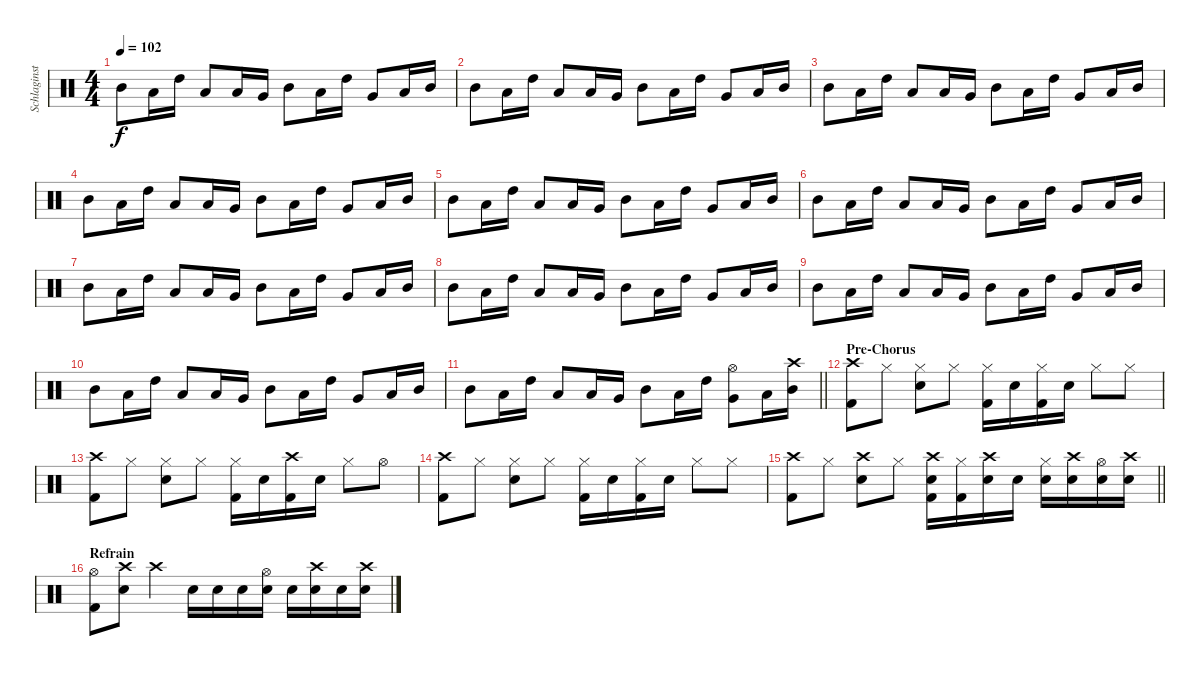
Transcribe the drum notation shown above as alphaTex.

\track ("Schlaginstrumente - Auswahl" "Schlaginst") {instrument percussion}
\staff {score}
\articulation defaults
\ts (4 4)
\tempo 102
\clef neutral
\ks c "Mid Tom (hit)".8{dy f} "Low Tom (hit)".16 "High Tom (hit)".16 "Low Floor Tom (hit)".8 "Low Tom (hit)".16 "Very Low Tom (hit)".16 "Mid Tom (hit)".8 "Low Tom (hit)".16 "High Tom (hit)".16 "Very Low Tom (hit)".8 "Low Tom (hit)".16 "Mid Tom (hit)".16
|
"Mid Tom (hit)".8 "Low Tom (hit)".16 "High Tom (hit)".16 "Low Floor Tom (hit)".8 "Low Tom (hit)".16 "Very Low Tom (hit)".16 "Mid Tom (hit)".8 "Low Tom (hit)".16 "High Tom (hit)".16 "Very Low Tom (hit)".8 "Low Tom (hit)".16 "Mid Tom (hit)".16 |
"Mid Tom (hit)".8 "Low Tom (hit)".16 "High Tom (hit)".16 "Low Floor Tom (hit)".8 "Low Tom (hit)".16 "Very Low Tom (hit)".16 "Mid Tom (hit)".8 "Low Tom (hit)".16 "High Tom (hit)".16 "Very Low Tom (hit)".8 "Low Tom (hit)".16 "Mid Tom (hit)".16 |
"Mid Tom (hit)".8 "Low Tom (hit)".16 "High Tom (hit)".16 "Low Floor Tom (hit)".8 "Low Tom (hit)".16 "Very Low Tom (hit)".16 "Mid Tom (hit)".8 "Low Tom (hit)".16 "High Tom (hit)".16 "Very Low Tom (hit)".8 "Low Tom (hit)".16 "Mid Tom (hit)".16 |
"Mid Tom (hit)".8 "Low Tom (hit)".16 "High Tom (hit)".16 "Low Floor Tom (hit)".8 "Low Tom (hit)".16 "Very Low Tom (hit)".16 "Mid Tom (hit)".8 "Low Tom (hit)".16 "High Tom (hit)".16 "Very Low Tom (hit)".8 "Low Tom (hit)".16 "Mid Tom (hit)".16 |
"Mid Tom (hit)".8 "Low Tom (hit)".16 "High Tom (hit)".16 "Low Floor Tom (hit)".8 "Low Tom (hit)".16 "Very Low Tom (hit)".16 "Mid Tom (hit)".8 "Low Tom (hit)".16 "High Tom (hit)".16 "Very Low Tom (hit)".8 "Low Tom (hit)".16 "Mid Tom (hit)".16 |
"Mid Tom (hit)".8 "Low Tom (hit)".16 "High Tom (hit)".16 "Low Floor Tom (hit)".8 "Low Tom (hit)".16 "Very Low Tom (hit)".16 "Mid Tom (hit)".8 "Low Tom (hit)".16 "High Tom (hit)".16 "Very Low Tom (hit)".8 "Low Tom (hit)".16 "Mid Tom (hit)".16 |
"Mid Tom (hit)".8 "Low Tom (hit)".16 "High Tom (hit)".16 "Low Floor Tom (hit)".8 "Low Tom (hit)".16 "Very Low Tom (hit)".16 "Mid Tom (hit)".8 "Low Tom (hit)".16 "High Tom (hit)".16 "Very Low Tom (hit)".8 "Low Tom (hit)".16 "Mid Tom (hit)".16 |
"Mid Tom (hit)".8 "Low Tom (hit)".16 "High Tom (hit)".16 "Low Floor Tom (hit)".8 "Low Tom (hit)".16 "Very Low Tom (hit)".16 "Mid Tom (hit)".8 "Low Tom (hit)".16 "High Tom (hit)".16 "Very Low Tom (hit)".8 "Low Tom (hit)".16 "Mid Tom (hit)".16 |
"Mid Tom (hit)".8 "Low Tom (hit)".16 "High Tom (hit)".16 "Low Floor Tom (hit)".8 "Low Tom (hit)".16 "Very Low Tom (hit)".16 "Mid Tom (hit)".8 "Low Tom (hit)".16 "High Tom (hit)".16 "Very Low Tom (hit)".8 "Low Tom (hit)".16 "Mid Tom (hit)".16 |
\barLineRight lightlight "Mid Tom (hit)".8 "Low Tom (hit)".16 "High Tom (hit)".16 "Low Floor Tom (hit)".8 "Low Tom (hit)".16 "Very Low Tom (hit)".16 "Mid Tom (hit)".8 "Low Tom (hit)".16 "High Tom (hit)".16
("Very Low Tom (hit)" "Hi-Hat (open)").8 "Low Tom (hit)".16 ("Mid Tom (hit)" "Crash high (hit)").16 |
\section ("" "Pre-Chorus")
("Crash high (hit)" "Kick (hit) 2").8 "Hi-Hat (closed)".8 ("Hi-Hat (closed)" "Electric Snare (hit)").8 "Hi-Hat (closed)".8 ("Hi-Hat (closed)" "Kick (hit) 2").16 "Electric Snare (hit)".16 ("Hi-Hat (closed)" "Kick (hit) 2").16 "Electric Snare (hit)".16 "Hi-Hat (closed)".8 "Hi-Hat (closed)".8 |
("Crash high (hit)" "Kick (hit) 2").8 "Hi-Hat (closed)".8 ("Hi-Hat (closed)" "Electric Snare (hit)").8 "Hi-Hat (closed)".8 ("Hi-Hat (closed)" "Kick (hit) 2").16 "Electric Snare (hit)".16 ("Crash high (hit)" "Kick (hit) 2").16 "Electric Snare (hit)".16 "Hi-Hat (closed)".8 "Hi-Hat (open)".8 |
("Crash high (hit)" "Kick (hit) 2").8 "Hi-Hat (closed)".8 ("Hi-Hat (closed)" "Electric Snare (hit)").8 "Hi-Hat (closed)".8 ("Hi-Hat (closed)" "Kick (hit) 2").16 "Electric Snare (hit)".16 ("Hi-Hat (closed)" "Kick (hit) 2").16 "Electric Snare (hit)".16 "Hi-Hat (closed)".8 "Hi-Hat (closed)".8 |
\barLineRight lightlight
("Crash high (hit)" "Kick (hit) 2").8 "Hi-Hat (closed)".8 ("Crash high (hit)" "Electric Snare (hit)").8 "Hi-Hat (closed)".8 ("Crash high (hit)" "Electric Snare (hit)" "Kick (hit) 2").16 ("Hi-Hat (closed)" "Kick (hit) 2").16 ("Crash high (hit)" "Electric Snare (hit)").16 "Electric Snare (hit)".16 ("Hi-Hat (closed)" "Electric Snare (hit)").16 ("Crash high (hit)" "Electric Snare (hit)").16 ("Hi-Hat (open)" "Electric Snare (hit)").16 ("Crash high (hit)" "Electric Snare (hit)").16 |
\section ("" "Refrain")
("Hi-Hat (open)" "Kick (hit) 2").8 ("Crash high (hit)" "Electric Snare (hit)").8 "Crash high (hit)".4 "Snare (hit) 2".16 "Snare (hit) 2".16 "Snare (hit) 2".16 ("Snare (hit) 2" "Hi-Hat (open)").16 "Snare (hit) 2".16 ("Snare (hit) 2" "Crash high (hit)").16 "Snare (hit) 2".16 ("Snare (hit) 2" "Crash high (hit)").16
